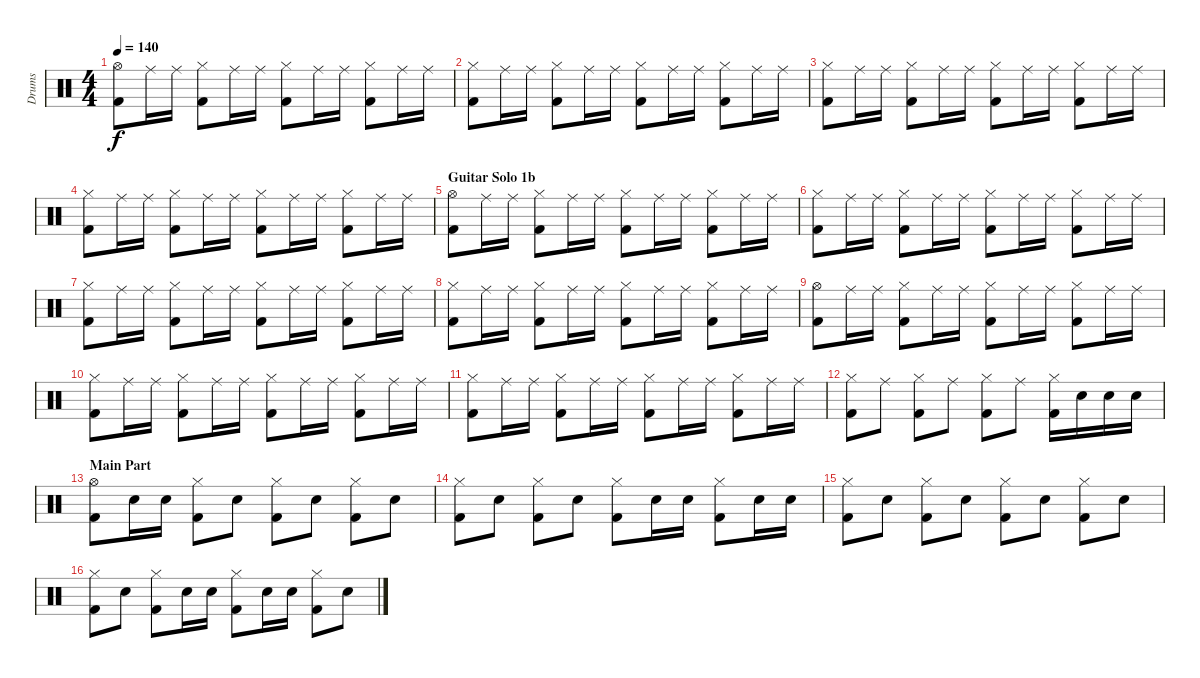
\track ("Drums" "Drums") {instrument percussion}
\staff {score}
\articulation defaults
\ts (4 4)
\tempo 140
\clef neutral
\ks c
("Hi-Hat (open)" "Kick (hit) 2").8{dy f} "Ride (middle)".16 "Ride (middle)".16 ("Hi-Hat (closed)" "Kick (hit) 2").8 "Ride (middle)".16 "Ride (middle)".16 ("Hi-Hat (closed)" "Kick (hit) 2").8 "Ride (middle)".16 "Ride (middle)".16 ("Hi-Hat (closed)" "Kick (hit) 2").8 "Ride (middle)".16 "Ride (middle)".16 |
("Hi-Hat (closed)" "Kick (hit) 2").8 "Ride (middle)".16 "Ride (middle)".16 ("Hi-Hat (closed)" "Kick (hit) 2").8 "Ride (middle)".16 "Ride (middle)".16 ("Hi-Hat (closed)" "Kick (hit) 2").8 "Ride (middle)".16 "Ride (middle)".16 ("Hi-Hat (closed)" "Kick (hit) 2").8 "Ride (middle)".16 "Ride (middle)".16 |
("Hi-Hat (closed)" "Kick (hit) 2").8 "Ride (middle)".16 "Ride (middle)".16 ("Hi-Hat (closed)" "Kick (hit) 2").8 "Ride (middle)".16 "Ride (middle)".16 ("Hi-Hat (closed)" "Kick (hit) 2").8 "Ride (middle)".16 "Ride (middle)".16 ("Hi-Hat (closed)" "Kick (hit) 2").8 "Ride (middle)".16 "Ride (middle)".16 |
("Hi-Hat (closed)" "Kick (hit) 2").8 "Ride (middle)".16 "Ride (middle)".16 ("Hi-Hat (closed)" "Kick (hit) 2").8 "Ride (middle)".16 "Ride (middle)".16 ("Hi-Hat (closed)" "Kick (hit) 2").8 "Ride (middle)".16 "Ride (middle)".16 ("Hi-Hat (closed)" "Kick (hit) 2").8 "Ride (middle)".16 "Ride (middle)".16 |
\section ("" "Guitar Solo 1b")
("Hi-Hat (open)" "Kick (hit) 2").8 "Ride (middle)".16 "Ride (middle)".16 ("Hi-Hat (closed)" "Kick (hit) 2").8 "Ride (middle)".16 "Ride (middle)".16 ("Hi-Hat (closed)" "Kick (hit) 2").8 "Ride (middle)".16 "Ride (middle)".16 ("Hi-Hat (closed)" "Kick (hit) 2").8 "Ride (middle)".16 "Ride (middle)".16 |
("Hi-Hat (closed)" "Kick (hit) 2").8 "Ride (middle)".16 "Ride (middle)".16 ("Hi-Hat (closed)" "Kick (hit) 2").8 "Ride (middle)".16 "Ride (middle)".16 ("Hi-Hat (closed)" "Kick (hit) 2").8 "Ride (middle)".16 "Ride (middle)".16 ("Hi-Hat (closed)" "Kick (hit) 2").8 "Ride (middle)".16 "Ride (middle)".16 |
("Hi-Hat (closed)" "Kick (hit) 2").8 "Ride (middle)".16 "Ride (middle)".16 ("Hi-Hat (closed)" "Kick (hit) 2").8 "Ride (middle)".16 "Ride (middle)".16 ("Hi-Hat (closed)" "Kick (hit) 2").8 "Ride (middle)".16 "Ride (middle)".16 ("Hi-Hat (closed)" "Kick (hit) 2").8 "Ride (middle)".16 "Ride (middle)".16 |
("Hi-Hat (closed)" "Kick (hit) 2").8 "Ride (middle)".16 "Ride (middle)".16 ("Hi-Hat (closed)" "Kick (hit) 2").8 "Ride (middle)".16 "Ride (middle)".16 ("Hi-Hat (closed)" "Kick (hit) 2").8 "Ride (middle)".16 "Ride (middle)".16 ("Hi-Hat (closed)" "Kick (hit) 2").8 "Ride (middle)".16 "Ride (middle)".16 |
("Hi-Hat (open)" "Kick (hit) 2").8 "Ride (middle)".16 "Ride (middle)".16 ("Hi-Hat (closed)" "Kick (hit) 2").8 "Ride (middle)".16 "Ride (middle)".16 ("Hi-Hat (closed)" "Kick (hit) 2").8 "Ride (middle)".16 "Ride (middle)".16 ("Hi-Hat (closed)" "Kick (hit) 2").8 "Ride (middle)".16 "Ride (middle)".16 |
("Hi-Hat (closed)" "Kick (hit) 2").8 "Ride (middle)".16 "Ride (middle)".16 ("Hi-Hat (closed)" "Kick (hit) 2").8 "Ride (middle)".16 "Ride (middle)".16 ("Hi-Hat (closed)" "Kick (hit) 2").8 "Ride (middle)".16 "Ride (middle)".16 ("Hi-Hat (closed)" "Kick (hit) 2").8 "Ride (middle)".16 "Ride (middle)".16 |
("Hi-Hat (closed)" "Kick (hit) 2").8 "Ride (middle)".16 "Ride (middle)".16 ("Hi-Hat (closed)" "Kick (hit) 2").8 "Ride (middle)".16 "Ride (middle)".16 ("Hi-Hat (closed)" "Kick (hit) 2").8 "Ride (middle)".16 "Ride (middle)".16 ("Hi-Hat (closed)" "Kick (hit) 2").8 "Ride (middle)".16 "Ride (middle)".16 |
("Hi-Hat (closed)" "Kick (hit) 2").8 "Ride (middle)".8 ("Hi-Hat (closed)" "Kick (hit) 2").8 "Ride (middle)".8 ("Hi-Hat (closed)" "Kick (hit) 2").8 "Ride (middle)".8 ("Hi-Hat (closed)" "Kick (hit) 2").16 "Snare (hit) 2".16 "Snare (hit) 2".16 "Snare (hit) 2".16 |
\section ("" "Main Part")
("Hi-Hat (open)" "Kick (hit) 2").8 "Snare (hit) 2".16 "Snare (hit) 2".16 ("Hi-Hat (closed)" "Kick (hit) 2").8 "Snare (hit) 2".8 ("Hi-Hat (closed)" "Kick (hit) 2").8 "Snare (hit) 2".8 ("Hi-Hat (closed)" "Kick (hit) 2").8 "Snare (hit) 2".8 |
("Hi-Hat (closed)" "Kick (hit) 2").8 "Snare (hit) 2".8 ("Hi-Hat (closed)" "Kick (hit) 2").8 "Snare (hit) 2".8 ("Hi-Hat (closed)" "Kick (hit) 2").8 "Snare (hit) 2".16 "Snare (hit) 2".16 ("Hi-Hat (closed)" "Kick (hit) 2").8 "Snare (hit) 2".16 "Snare (hit) 2".16 |
("Hi-Hat (closed)" "Kick (hit) 2").8 "Snare (hit) 2".8 ("Hi-Hat (closed)" "Kick (hit) 2").8 "Snare (hit) 2".8 ("Hi-Hat (closed)" "Kick (hit) 2").8 "Snare (hit) 2".8 ("Hi-Hat (closed)" "Kick (hit) 2").8 "Snare (hit) 2".8 |
("Hi-Hat (closed)" "Kick (hit) 2").8 "Snare (hit) 2".8 ("Hi-Hat (closed)" "Kick (hit) 2").8 "Snare (hit) 2".16 "Snare (hit) 2".16 ("Hi-Hat (closed)" "Kick (hit) 2").8 "Snare (hit) 2".16 "Snare (hit) 2".16 ("Hi-Hat (closed)" "Kick (hit) 2").8 "Snare (hit) 2".8
